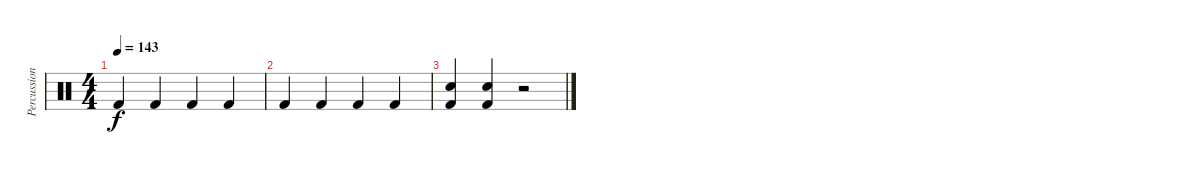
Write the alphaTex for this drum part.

\track ("Percussion" "Percussion") {instrument percussion}
\staff {score}
\articulation defaults
\ts (4 4)
\tempo 143
\clef neutral
\ks c "Kick (hit) 2".4{dy f} "Kick (hit) 2".4 "Kick (hit) 2".4 "Kick (hit) 2".4
|
"Kick (hit) 2".4 "Kick (hit) 2".4 "Kick (hit) 2".4 "Kick (hit) 2".4 |
("Snare (hit) 2" "Kick (hit) 2").4 ("Snare (hit) 2" "Kick (hit) 2").4 r.2
